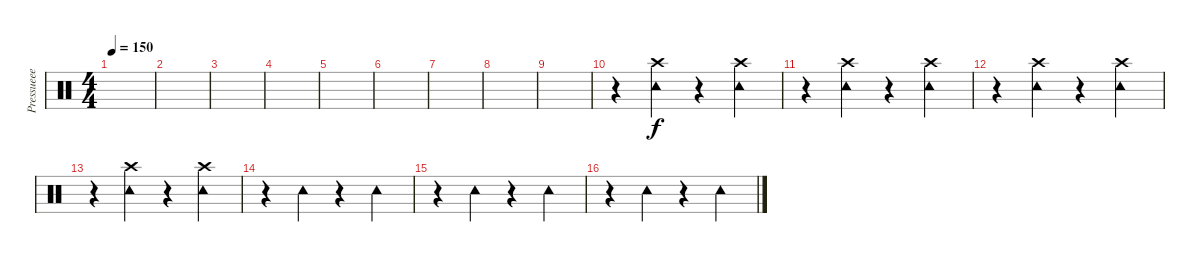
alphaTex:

\track ("Pressueee " "Pressueee ") {instrument percussion}
\staff {score}
\articulation defaults
\ts (4 4)
\tempo 150
\clef neutral
\ks c
|
|
|
|
|
|
|
|
|
r.4 ("Crash high (hit)" "Tambourine (hit)").4 r.4 ("Crash high (hit)" "Tambourine (hit)").4 |
r.4 ("Crash high (hit)" "Tambourine (hit)").4 r.4 ("Crash high (hit)" "Tambourine (hit)").4 |
r.4 ("Crash high (hit)" "Tambourine (hit)").4 r.4 ("Crash high (hit)" "Tambourine (hit)").4 |
r.4 ("Crash high (hit)" "Tambourine (hit)").4 r.4 ("Crash high (hit)" "Tambourine (hit)").4 |
r.4 "Tambourine (hit)".4 r.4 "Tambourine (hit)".4 |
r.4 "Tambourine (hit)".4 r.4 "Tambourine (hit)".4 |
r.4 "Tambourine (hit)".4 r.4 "Tambourine (hit)".4
